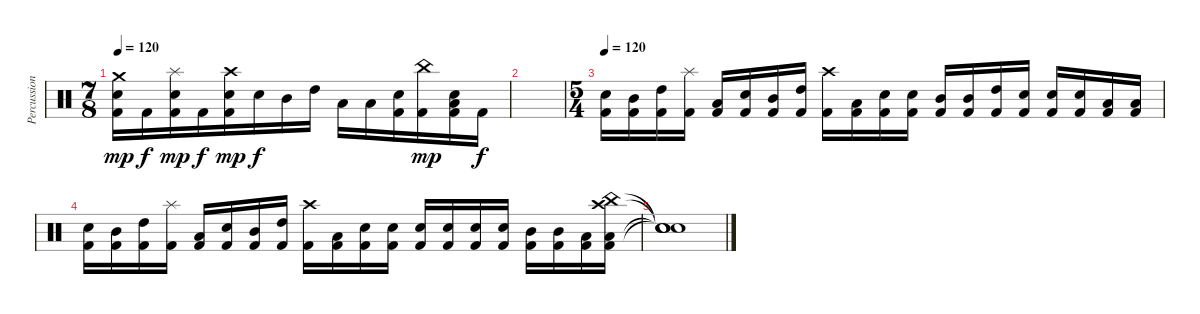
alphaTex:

\track ("Percussion" "Percussion") {instrument percussion}
\staff {score}
\articulation defaults
\ts (7 8)
\tempo 120
\clef neutral
\ks c
("Kick (hit) 2" "Crash medium (hit)" "Snare (hit) 2").16{dy mp} "Kick (hit) 2".16{dy f} ("Kick (hit) 2" "Splash (hit)" "Snare (hit) 2").16{dy mp} "Kick (hit) 2".16{dy f} ("Kick (hit) 2" "Crash high (hit)" "Snare (hit) 2").16{dy mp} "Snare (hit) 2".16{dy f} "Mid Tom (hit)".16 "High Tom (hit)".16 "Low Tom (hit)".16 "Low Tom (hit)".16 ("Kick (hit) 2" "Snare (hit) 2").16 ("Kick (hit) 2" "China (hit)").16{dy mp} ("Kick (hit) 2" "Low Tom (hit)" "Snare (hit) 2").16 "Kick (hit) 2".16{dy f} |
|
\ts (5 4)
\tempo 120
("Snare (hit) 2" "Kick (hit) 2").16 ("Mid Tom (hit)" "Kick (hit) 2").16 ("High Tom (hit)" "Kick (hit) 2").16 ("Splash (hit)" "Kick (hit) 2").16 ("Low Tom (hit)" "Kick (hit) 2").16 ("Snare (hit) 2" "Kick (hit) 2").16 ("Mid Tom (hit)" "Kick (hit) 2").16 ("High Tom (hit)" "Kick (hit) 2").16 ("Crash high (hit)" "Kick (hit) 2").16 ("Low Tom (hit)" "Kick (hit) 2").16 ("Snare (hit) 2" "Kick (hit) 2").16 ("Snare (hit) 2" "Kick (hit) 2").16 ("Mid Tom (hit)" "Kick (hit) 2").16 ("Mid Tom (hit)" "Kick (hit) 2").16 ("High Tom (hit)" "Kick (hit) 2").16 ("Snare (hit) 2" "Kick (hit) 2").16 ("Snare (hit) 2" "Kick (hit) 2").16 ("Snare (hit) 2" "Kick (hit) 2").16 ("Low Tom (hit)" "Kick (hit) 2").16 ("Low Tom (hit)" "Kick (hit) 2").16 |
("Snare (hit) 2" "Kick (hit) 2").16 ("Mid Tom (hit)" "Kick (hit) 2").16 ("High Tom (hit)" "Kick (hit) 2").16 ("Splash (hit)" "Kick (hit) 2").16 ("Low Tom (hit)" "Kick (hit) 2").16 ("Snare (hit) 2" "Kick (hit) 2").16 ("Mid Tom (hit)" "Kick (hit) 2").16 ("High Tom (hit)" "Kick (hit) 2").16 ("Crash high (hit)" "Kick (hit) 2").16 ("Low Tom (hit)" "Kick (hit) 2").16 ("Snare (hit) 2" "Kick (hit) 2").16 ("Snare (hit) 2" "Kick (hit) 2").16 ("Snare (hit) 2" "Kick (hit) 2").16 ("Snare (hit) 2" "Kick (hit) 2").16 ("Snare (hit) 2" "Kick (hit) 2").16 ("Snare (hit) 2" "Kick (hit) 2").16 ("Mid Tom (hit)" "Kick (hit) 2").16 ("Mid Tom (hit)" "Kick (hit) 2").16 ("Low Tom (hit)" "Kick (hit) 2").16 ("Low Tom (hit)" "China (hit)" "Crash high (hit)" "Kick (hit) 2").16 |
("Snare (hit)"{t} "Snare (hit)"{t} "Snare (hit)"{t} "Snare (hit)"{t}).1
